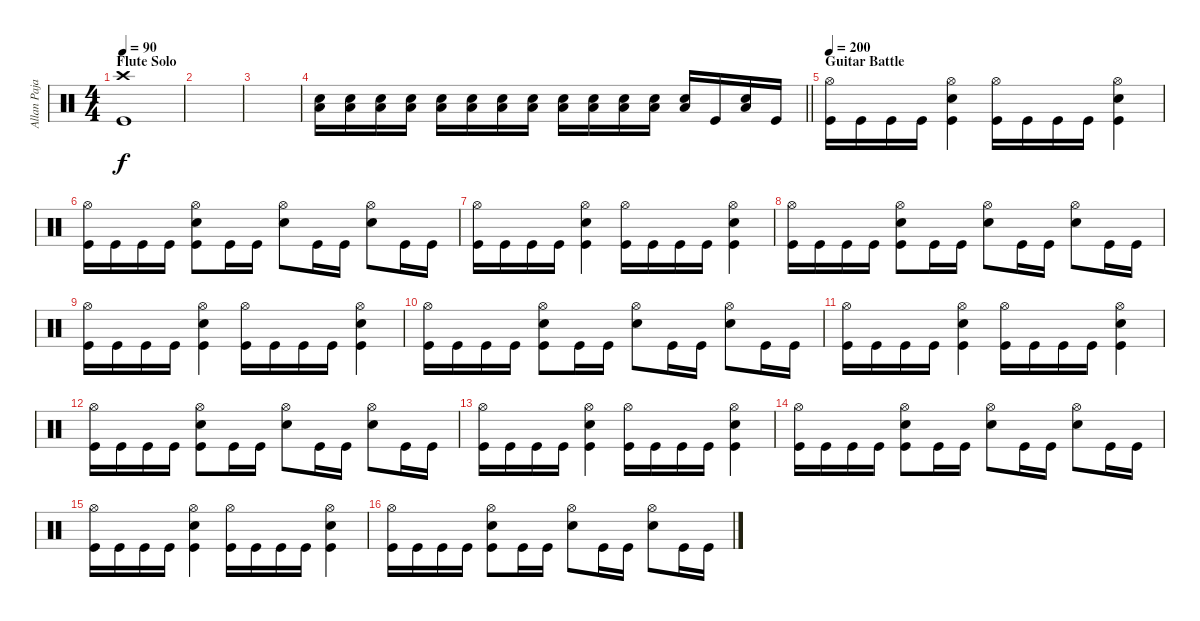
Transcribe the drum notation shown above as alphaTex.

\track ("Allan Pajarin (Drums)" "Allan Paja") {instrument percussion}
\staff {score}
\articulation defaults
\ts (4 4)
\section ("" "Flute Solo")
\tempo 90
\clef neutral
\ks c
("Crash high (hit)" "Kick (hit)").1{dy f} |
|
|
\barLineRight lightlight
("Electric Snare (hit)" "Low Floor Tom (hit)").16{volume 16} ("Electric Snare (hit)" "Low Floor Tom (hit)").16 ("Electric Snare (hit)" "Low Floor Tom (hit)").16 ("Electric Snare (hit)" "Low Floor Tom (hit)").16 ("Electric Snare (hit)" "Low Floor Tom (hit)").16 ("Electric Snare (hit)" "Low Floor Tom (hit)").16 ("Electric Snare (hit)" "Low Floor Tom (hit)").16 ("Electric Snare (hit)" "Low Floor Tom (hit)").16 ("Electric Snare (hit)" "Low Floor Tom (hit)").16 ("Electric Snare (hit)" "Low Floor Tom (hit)").16 ("Electric Snare (hit)" "Low Floor Tom (hit)").16 ("Electric Snare (hit)" "Low Floor Tom (hit)").16 ("Electric Snare (hit)" "Low Floor Tom (hit)").16 "Kick (hit)".16 ("Electric Snare (hit)" "Low Floor Tom (hit)").16 "Kick (hit)".16 |
\section ("" "Guitar Battle")
\tempo 200
("Hi-Hat (open)" "Kick (hit)").16{volume 12} "Kick (hit)".16 "Kick (hit)".16 "Kick (hit)".16 ("Hi-Hat (open)" "Electric Snare (hit)" "Kick (hit)").4 ("Hi-Hat (open)" "Kick (hit)").16 "Kick (hit)".16 "Kick (hit)".16 "Kick (hit)".16 ("Hi-Hat (open)" "Electric Snare (hit)" "Kick (hit)").4 |
("Hi-Hat (open)" "Kick (hit)").16 "Kick (hit)".16 "Kick (hit)".16 "Kick (hit)".16 ("Hi-Hat (open)" "Electric Snare (hit)" "Kick (hit)").8 "Kick (hit)".16 "Kick (hit)".16 ("Hi-Hat (open)" "Electric Snare (hit)").8 "Kick (hit)".16 "Kick (hit)".16 ("Hi-Hat (open)" "Electric Snare (hit)").8 "Kick (hit)".16 "Kick (hit)".16 |
("Hi-Hat (open)" "Kick (hit)").16 "Kick (hit)".16 "Kick (hit)".16 "Kick (hit)".16 ("Hi-Hat (open)" "Electric Snare (hit)" "Kick (hit)").4 ("Hi-Hat (open)" "Kick (hit)").16 "Kick (hit)".16 "Kick (hit)".16 "Kick (hit)".16 ("Hi-Hat (open)" "Electric Snare (hit)" "Kick (hit)").4 |
("Hi-Hat (open)" "Kick (hit)").16 "Kick (hit)".16 "Kick (hit)".16 "Kick (hit)".16 ("Hi-Hat (open)" "Electric Snare (hit)" "Kick (hit)").8 "Kick (hit)".16 "Kick (hit)".16 ("Hi-Hat (open)" "Electric Snare (hit)").8 "Kick (hit)".16 "Kick (hit)".16 ("Hi-Hat (open)" "Electric Snare (hit)").8 "Kick (hit)".16 "Kick (hit)".16 |
("Hi-Hat (open)" "Kick (hit)").16 "Kick (hit)".16 "Kick (hit)".16 "Kick (hit)".16 ("Hi-Hat (open)" "Electric Snare (hit)" "Kick (hit)").4 ("Hi-Hat (open)" "Kick (hit)").16 "Kick (hit)".16 "Kick (hit)".16 "Kick (hit)".16 ("Hi-Hat (open)" "Electric Snare (hit)" "Kick (hit)").4 |
("Hi-Hat (open)" "Kick (hit)").16 "Kick (hit)".16 "Kick (hit)".16 "Kick (hit)".16 ("Hi-Hat (open)" "Electric Snare (hit)" "Kick (hit)").8 "Kick (hit)".16 "Kick (hit)".16 ("Hi-Hat (open)" "Electric Snare (hit)").8 "Kick (hit)".16 "Kick (hit)".16 ("Hi-Hat (open)" "Electric Snare (hit)").8 "Kick (hit)".16 "Kick (hit)".16 |
("Hi-Hat (open)" "Kick (hit)").16 "Kick (hit)".16 "Kick (hit)".16 "Kick (hit)".16 ("Hi-Hat (open)" "Electric Snare (hit)" "Kick (hit)").4 ("Hi-Hat (open)" "Kick (hit)").16 "Kick (hit)".16 "Kick (hit)".16 "Kick (hit)".16 ("Hi-Hat (open)" "Electric Snare (hit)" "Kick (hit)").4 |
("Hi-Hat (open)" "Kick (hit)").16 "Kick (hit)".16 "Kick (hit)".16 "Kick (hit)".16 ("Hi-Hat (open)" "Electric Snare (hit)" "Kick (hit)").8 "Kick (hit)".16 "Kick (hit)".16 ("Hi-Hat (open)" "Electric Snare (hit)").8 "Kick (hit)".16 "Kick (hit)".16 ("Hi-Hat (open)" "Electric Snare (hit)").8 "Kick (hit)".16 "Kick (hit)".16 |
("Hi-Hat (open)" "Kick (hit)").16 "Kick (hit)".16 "Kick (hit)".16 "Kick (hit)".16 ("Hi-Hat (open)" "Electric Snare (hit)" "Kick (hit)").4 ("Hi-Hat (open)" "Kick (hit)").16 "Kick (hit)".16 "Kick (hit)".16 "Kick (hit)".16 ("Hi-Hat (open)" "Electric Snare (hit)" "Kick (hit)").4 |
("Hi-Hat (open)" "Kick (hit)").16 "Kick (hit)".16 "Kick (hit)".16 "Kick (hit)".16 ("Hi-Hat (open)" "Electric Snare (hit)" "Kick (hit)").8 "Kick (hit)".16 "Kick (hit)".16 ("Hi-Hat (open)" "Electric Snare (hit)").8 "Kick (hit)".16 "Kick (hit)".16 ("Hi-Hat (open)" "Electric Snare (hit)").8 "Kick (hit)".16 "Kick (hit)".16 |
("Hi-Hat (open)" "Kick (hit)").16 "Kick (hit)".16 "Kick (hit)".16 "Kick (hit)".16 ("Hi-Hat (open)" "Electric Snare (hit)" "Kick (hit)").4 ("Hi-Hat (open)" "Kick (hit)").16 "Kick (hit)".16 "Kick (hit)".16 "Kick (hit)".16 ("Hi-Hat (open)" "Electric Snare (hit)" "Kick (hit)").4 |
("Hi-Hat (open)" "Kick (hit)").16 "Kick (hit)".16 "Kick (hit)".16 "Kick (hit)".16 ("Hi-Hat (open)" "Electric Snare (hit)" "Kick (hit)").8 "Kick (hit)".16 "Kick (hit)".16 ("Hi-Hat (open)" "Electric Snare (hit)").8 "Kick (hit)".16 "Kick (hit)".16 ("Hi-Hat (open)" "Electric Snare (hit)").8 "Kick (hit)".16 "Kick (hit)".16
